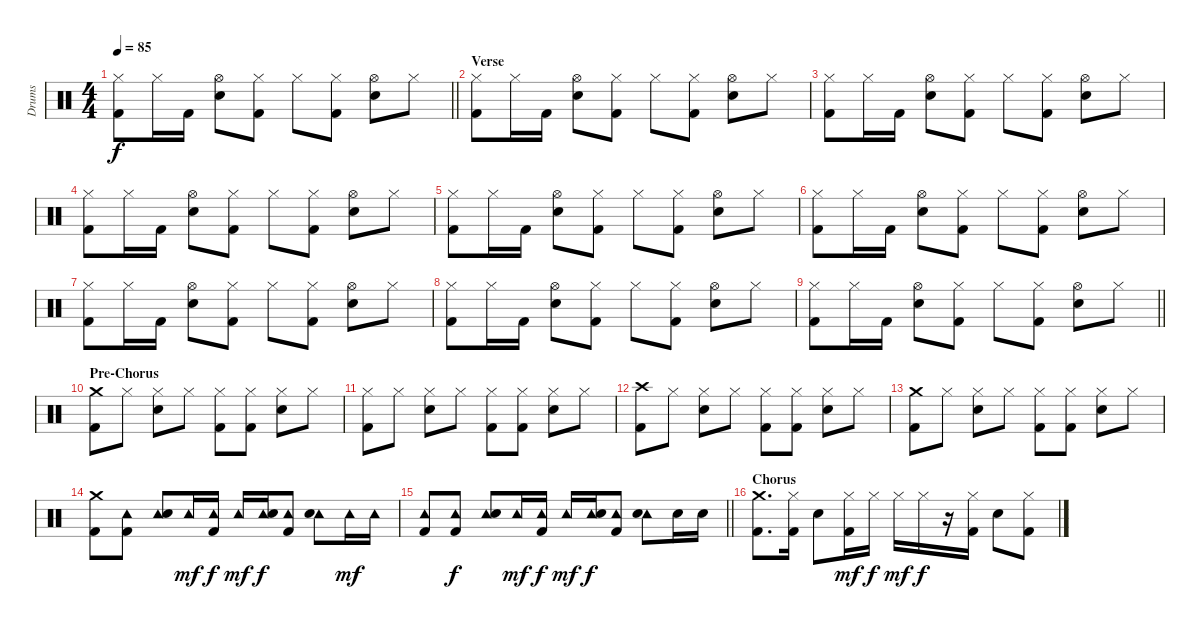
\track ("Drums" "Drums") {instrument percussion}
\staff {score}
\articulation defaults
\ts (4 4)
\tempo 85
\clef neutral
\barLineRight lightlight
\ks c
("Hi-Hat (closed)" "Kick (hit) 2").8{dy f} "Hi-Hat (closed)".16 "Kick (hit) 2".16 ("Hi-Hat (open)" "Snare (hit) 2").8 ("Hi-Hat (closed)" "Kick (hit) 2").8 "Hi-Hat (closed)".8 ("Hi-Hat (closed)" "Kick (hit) 2").8 ("Hi-Hat (open)" "Snare (hit) 2").8 "Hi-Hat (closed)".8 |
\section ("" "Verse")
("Hi-Hat (closed)" "Kick (hit) 2").8 "Hi-Hat (closed)".16 "Kick (hit) 2".16 ("Hi-Hat (open)" "Snare (hit) 2").8 ("Hi-Hat (closed)" "Kick (hit) 2").8 "Hi-Hat (closed)".8 ("Hi-Hat (closed)" "Kick (hit) 2").8 ("Hi-Hat (open)" "Snare (hit) 2").8 "Hi-Hat (closed)".8 |
("Hi-Hat (closed)" "Kick (hit) 2").8 "Hi-Hat (closed)".16 "Kick (hit) 2".16 ("Hi-Hat (open)" "Snare (hit) 2").8 ("Hi-Hat (closed)" "Kick (hit) 2").8 "Hi-Hat (closed)".8 ("Hi-Hat (closed)" "Kick (hit) 2").8 ("Hi-Hat (open)" "Snare (hit) 2").8 "Hi-Hat (closed)".8 |
("Hi-Hat (closed)" "Kick (hit) 2").8 "Hi-Hat (closed)".16 "Kick (hit) 2".16 ("Hi-Hat (open)" "Snare (hit) 2").8 ("Hi-Hat (closed)" "Kick (hit) 2").8 "Hi-Hat (closed)".8 ("Hi-Hat (closed)" "Kick (hit) 2").8 ("Hi-Hat (open)" "Snare (hit) 2").8 "Hi-Hat (closed)".8 |
("Hi-Hat (closed)" "Kick (hit) 2").8 "Hi-Hat (closed)".16 "Kick (hit) 2".16 ("Hi-Hat (open)" "Snare (hit) 2").8 ("Hi-Hat (closed)" "Kick (hit) 2").8 "Hi-Hat (closed)".8 ("Hi-Hat (closed)" "Kick (hit) 2").8 ("Hi-Hat (open)" "Snare (hit) 2").8 "Hi-Hat (closed)".8 |
("Hi-Hat (closed)" "Kick (hit) 2").8 "Hi-Hat (closed)".16 "Kick (hit) 2".16 ("Hi-Hat (open)" "Snare (hit) 2").8 ("Hi-Hat (closed)" "Kick (hit) 2").8 "Hi-Hat (closed)".8 ("Hi-Hat (closed)" "Kick (hit) 2").8 ("Hi-Hat (open)" "Snare (hit) 2").8 "Hi-Hat (closed)".8 |
("Hi-Hat (closed)" "Kick (hit) 2").8 "Hi-Hat (closed)".16 "Kick (hit) 2".16 ("Hi-Hat (open)" "Snare (hit) 2").8 ("Hi-Hat (closed)" "Kick (hit) 2").8 "Hi-Hat (closed)".8 ("Hi-Hat (closed)" "Kick (hit) 2").8 ("Hi-Hat (open)" "Snare (hit) 2").8 "Hi-Hat (closed)".8 |
("Hi-Hat (closed)" "Kick (hit) 2").8 "Hi-Hat (closed)".16 "Kick (hit) 2".16 ("Hi-Hat (open)" "Snare (hit) 2").8 ("Hi-Hat (closed)" "Kick (hit) 2").8 "Hi-Hat (closed)".8 ("Hi-Hat (closed)" "Kick (hit) 2").8 ("Hi-Hat (open)" "Snare (hit) 2").8 "Hi-Hat (closed)".8 |
\barLineRight lightlight
("Hi-Hat (closed)" "Kick (hit) 2").8 "Hi-Hat (closed)".16 "Kick (hit) 2".16 ("Hi-Hat (open)" "Snare (hit) 2").8 ("Hi-Hat (closed)" "Kick (hit) 2").8 "Hi-Hat (closed)".8 ("Hi-Hat (closed)" "Kick (hit) 2").8 ("Hi-Hat (open)" "Snare (hit) 2").8 "Hi-Hat (closed)".8 |
\section ("" "Pre-Chorus")
("Crash medium (hit)" "Kick (hit) 2").8 "Hi-Hat (closed)".8 ("Hi-Hat (closed)" "Snare (hit) 2").8 "Hi-Hat (closed)".8 ("Hi-Hat (closed)" "Kick (hit) 2").8 ("Hi-Hat (closed)" "Kick (hit) 2").8 ("Hi-Hat (closed)" "Snare (hit) 2").8 "Hi-Hat (closed)".8 |
("Hi-Hat (closed)" "Kick (hit) 2").8 "Hi-Hat (closed)".8 ("Hi-Hat (closed)" "Snare (hit) 2").8 "Hi-Hat (closed)".8 ("Hi-Hat (closed)" "Kick (hit) 2").8 ("Hi-Hat (closed)" "Kick (hit) 2").8 ("Hi-Hat (closed)" "Snare (hit) 2").8 "Hi-Hat (closed)".8 |
("Crash high (hit)" "Kick (hit) 2").8 "Hi-Hat (closed)".8 ("Hi-Hat (closed)" "Snare (hit) 2").8 "Hi-Hat (closed)".8 ("Hi-Hat (closed)" "Kick (hit) 2").8 ("Hi-Hat (closed)" "Kick (hit) 2").8 ("Hi-Hat (closed)" "Snare (hit) 2").8 "Hi-Hat (closed)".8 |
("Crash medium (hit)" "Kick (hit) 2").8 "Hi-Hat (closed)".8 ("Hi-Hat (closed)" "Snare (hit) 2").8 "Hi-Hat (closed)".8 ("Hi-Hat (closed)" "Kick (hit) 2").8 ("Hi-Hat (closed)" "Kick (hit) 2").8 ("Hi-Hat (closed)" "Snare (hit) 2").8 "Hi-Hat (closed)".8 |
("Crash medium (hit)" "Kick (hit) 2").8 ("Tambourine (hit)" "Kick (hit) 2").8 ("Tambourine (hit)" "Snare (hit) 2").8 "Tambourine (hit)".16{dy mf} ("Tambourine (hit)" "Kick (hit) 2").16{dy f} "Tambourine (hit)".16{dy mf} ("Tambourine (hit)" "Snare (hit) 2").16{dy f} ("Tambourine (hit)" "Kick (hit) 2").8 ("Tambourine (hit)" "Snare (hit) 2").8 "Tambourine (hit)".16{dy mf} "Tambourine (hit)".16 |
\barLineRight lightlight
("Tambourine (hit)" "Kick (hit) 2").8 ("Tambourine (hit)" "Kick (hit) 2").8{dy f} ("Tambourine (hit)" "Snare (hit) 2").8 "Tambourine (hit)".16{dy mf} ("Tambourine (hit)" "Kick (hit) 2").16{dy f} "Tambourine (hit)".16{dy mf} ("Tambourine (hit)" "Snare (hit) 2").16{dy f} ("Tambourine (hit)" "Kick (hit) 2").8 ("Tambourine (hit)" "Snare (hit) 2").8 "Snare (hit) 2".16 "Snare (hit) 2".16 |
\section ("" "Chorus")
("Crash medium (hit)" "Kick (hit) 2").8{d} ("Hi-Hat (closed)" "Kick (hit) 2").16 "Snare (hit) 2".8 ("Hi-Hat (closed)" "Kick (hit) 2").16{dy mf} "Hi-Hat (closed)".16{dy f} "Hi-Hat (closed)".16{dy mf} "Hi-Hat (closed)".16{dy f} r.16 ("Hi-Hat (closed)" "Kick (hit) 2").16 "Snare (hit) 2".8 ("Hi-Hat (closed)" "Kick (hit) 2").8
